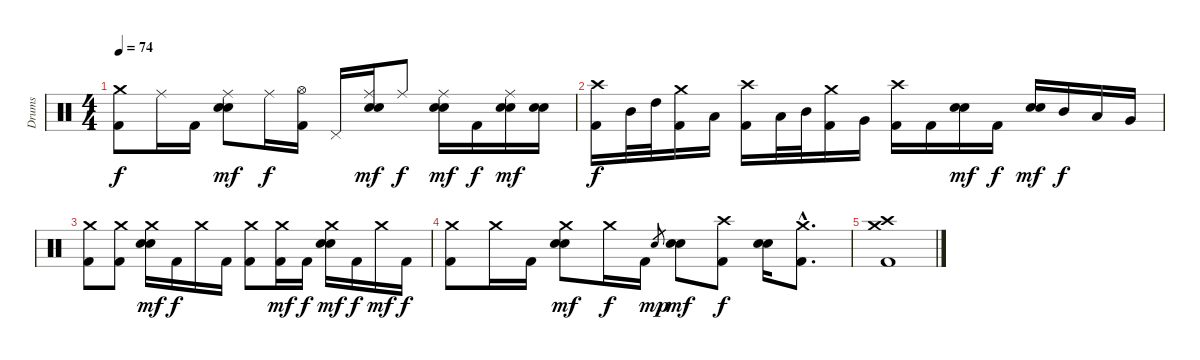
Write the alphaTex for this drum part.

\track ("Drums" "Drums") {instrument percussion}
\staff {score}
\articulation defaults
\ts (4 4)
\tempo 74
\clef neutral
\ks c
("Crash medium (hit)" "Kick (hit) 2").8{dy f} "Ride (middle)".16 "Kick (hit) 2".16 ("Ride (middle)" "Electric Snare (hit)" "Snare (hit) 2").8{dy mf} "Ride (middle)".16{dy f} ("Hi-Hat (open)" "Kick (hit) 2").16 "Pedal Hi-Hat (hit)".16 ("Ride (middle)" "Electric Snare (hit)" "Snare (hit) 2").16{dy mf} "Ride (middle)".8{dy f} ("Ride (middle)" "Electric Snare (hit)" "Snare (hit) 2").16{dy mf} "Kick (hit) 2".16{dy f} ("Ride (middle)" "Electric Snare (hit)" "Snare (hit) 2").16{dy mf} ("Electric Snare (hit)" "Snare (hit) 2").16 |
("Crash high (hit)" "Kick (hit) 2").16{dy f} "Mid Tom (hit)".32 "High Tom (hit)".32 ("Crash medium (hit)" "Kick (hit) 2").16 "Low Tom (hit)".16 ("Crash high (hit)" "Kick (hit) 2").16 "Low Tom (hit)".32 "Mid Tom (hit)".32 ("Crash medium (hit)" "Kick (hit) 2").16 "Very Low Tom (hit)".16 ("Crash high (hit)" "Kick (hit) 2").16 "Kick (hit) 2".16 ("Electric Snare (hit)" "Snare (hit) 2").16{dy mf} "Kick (hit) 2".16{dy f} ("Electric Snare (hit)" "Snare (hit) 2").16{dy mf} "Mid Tom (hit)".16{dy f} "Low Tom (hit)".16 "Very Low Tom (hit)".16 |
("Crash medium (hit)" "Kick (hit) 2").8 ("Crash medium (hit)" "Kick (hit) 2").8 ("Crash medium (hit)" "Electric Snare (hit)" "Snare (hit) 2").16{dy mf} "Kick (hit) 2".16{dy f} "Crash medium (hit)".16 "Kick (hit) 2".16 ("Crash medium (hit)" "Kick (hit) 2").8 ("Crash medium (hit)" "Kick (hit) 2").16{dy mf} "Kick (hit) 2".16{dy f} ("Crash medium (hit)" "Electric Snare (hit)" "Snare (hit) 2").16{dy mf} "Kick (hit) 2".16{dy f} "Crash medium (hit)".16{dy mf} "Kick (hit) 2".16{dy f} |
("Crash medium (hit)" "Kick (hit) 2").8 "Crash medium (hit)".16 "Kick (hit) 2".16 ("Crash medium (hit)" "Electric Snare (hit)" "Snare (hit) 2").8{dy mf} "Crash medium (hit)".16{dy f} "Kick (hit) 2".16 "Electric Snare (hit)".8{gr dy mp} ("Electric Snare (hit)" "Snare (hit) 2").8{dy mf} ("Crash high (hit)" "Kick (hit) 2").8{dy f} ("Electric Snare (hit)" "Snare (hit) 2").16 ("Crash medium (hit)"{hac} "Kick (hit) 2"{hac}).8{d} |
("Crash high (hit)" "Crash medium (hit)" "Kick (hit) 2").1
